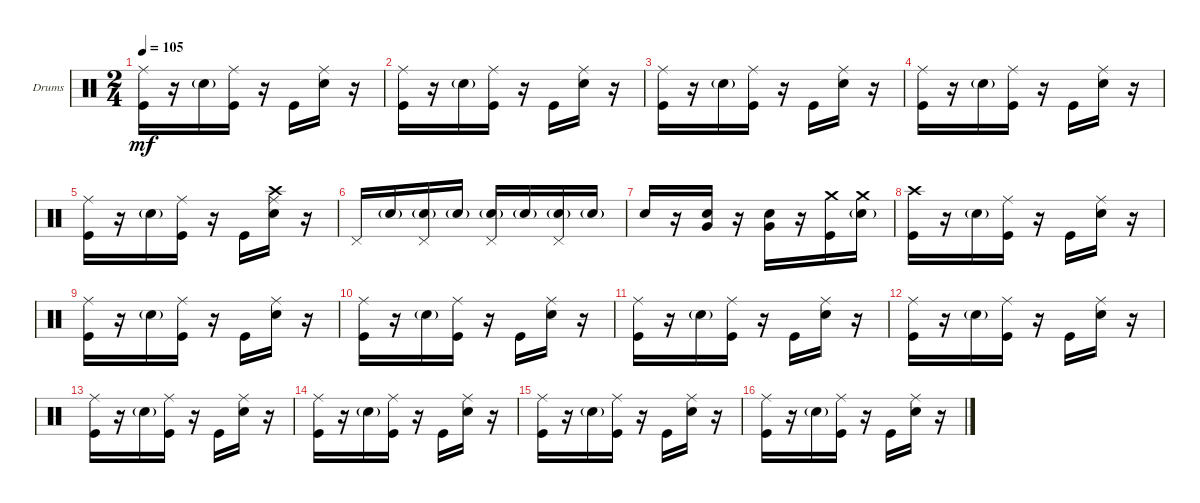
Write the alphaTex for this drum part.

\defaultSystemsLayout 4
\bracketExtendMode groupsimilarinstruments
\firstSystemTrackNameOrientation horizontal
\otherSystemsTrackNameOrientation horizontal
\track ("Godd" "Drums") {instrument percussion}
\staff {score}
\articulation defaults
\ts (2 4)
\tempo 105
\clef neutral
\ks c
("Ride (middle)" "Kick (hit)").16{dy mf} r.16 "Snare (hit) 2"{g}.16 ("Kick (hit)" "Ride (middle)").16 r.16 "Kick (hit)".16 ("Snare (hit) 2" "Ride (middle)").16 r.16 |
("Ride (middle)" "Kick (hit)").16 r.16 "Snare (hit) 2"{g}.16 ("Kick (hit)" "Ride (middle)").16 r.16 "Kick (hit)".16 ("Snare (hit) 2" "Ride (middle)").16 r.16 |
("Ride (middle)" "Kick (hit)").16 r.16 "Snare (hit) 2"{g}.16 ("Kick (hit)" "Ride (middle)").16 r.16 "Kick (hit)".16 ("Snare (hit) 2" "Ride (middle)").16 r.16 |
("Ride (middle)" "Kick (hit)").16 r.16 "Snare (hit) 2"{g}.16 ("Kick (hit)" "Ride (middle)").16 r.16 "Kick (hit)".16 ("Snare (hit) 2" "Ride (middle)").16 r.16 |
("Ride (middle)" "Kick (hit)").16 r.16 "Snare (hit) 2"{g}.16 ("Kick (hit)" "Ride (middle)").16 r.16 "Kick (hit)".16 ("Snare (hit) 2" "Ride (middle)" "Crash high (hit)").16 r.16 |
"Pedal Hi-Hat (hit)".16 "Snare (hit) 2"{g}.16 ("Snare (hit) 2"{g} "Pedal Hi-Hat (hit)").16 "Snare (hit) 2"{g}.16 ("Pedal Hi-Hat (hit)" "Snare (hit) 2"{g}).16 "Snare (hit) 2"{g}.16 ("Snare (hit) 2"{g} "Pedal Hi-Hat (hit)").16 "Snare (hit) 2"{g}.16 |
"Snare (hit) 2".16 r.16 ("Snare (hit) 2" "Very Low Tom (hit)").16 r.16 ("Snare (hit) 2" "Very Low Tom (hit)").16 r.16 ("Kick (hit)" "Crash medium (hit)").16 ("Crash medium (hit)" "Snare (hit) 2"{g}).16 |
("Kick (hit)" "Crash high (hit)").16 r.16 "Snare (hit) 2"{g}.16 ("Kick (hit)" "Ride (middle)").16 r.16 "Kick (hit)".16 ("Ride (middle)" "Snare (hit) 2").16 r.16 |
("Ride (middle)" "Kick (hit)").16 r.16 "Snare (hit) 2"{g}.16 ("Kick (hit)" "Ride (middle)").16 r.16 "Kick (hit)".16 ("Snare (hit) 2" "Ride (middle)").16 r.16 |
("Ride (middle)" "Kick (hit)").16 r.16 "Snare (hit) 2"{g}.16 ("Kick (hit)" "Ride (middle)").16 r.16 "Kick (hit)".16 ("Snare (hit) 2" "Ride (middle)").16 r.16 |
("Ride (middle)" "Kick (hit)").16 r.16 "Snare (hit) 2"{g}.16 ("Kick (hit)" "Ride (middle)").16 r.16 "Kick (hit)".16 ("Snare (hit) 2" "Ride (middle)").16 r.16 |
("Ride (middle)" "Kick (hit)").16 r.16 "Snare (hit) 2"{g}.16 ("Kick (hit)" "Ride (middle)").16 r.16 "Kick (hit)".16 ("Snare (hit) 2" "Ride (middle)").16 r.16 |
("Ride (middle)" "Kick (hit)").16 r.16 "Snare (hit) 2"{g}.16 ("Kick (hit)" "Ride (middle)").16 r.16 "Kick (hit)".16 ("Snare (hit) 2" "Ride (middle)").16 r.16 |
("Ride (middle)" "Kick (hit)").16 r.16 "Snare (hit) 2"{g}.16 ("Kick (hit)" "Ride (middle)").16 r.16 "Kick (hit)".16 ("Snare (hit) 2" "Ride (middle)").16 r.16 |
("Ride (middle)" "Kick (hit)").16 r.16 "Snare (hit) 2"{g}.16 ("Kick (hit)" "Ride (middle)").16 r.16 "Kick (hit)".16 ("Snare (hit) 2" "Ride (middle)").16 r.16 |
("Ride (middle)" "Kick (hit)").16 r.16 "Snare (hit) 2"{g}.16 ("Kick (hit)" "Ride (middle)").16 r.16 "Kick (hit)".16 ("Snare (hit) 2" "Ride (middle)").16 r.16
